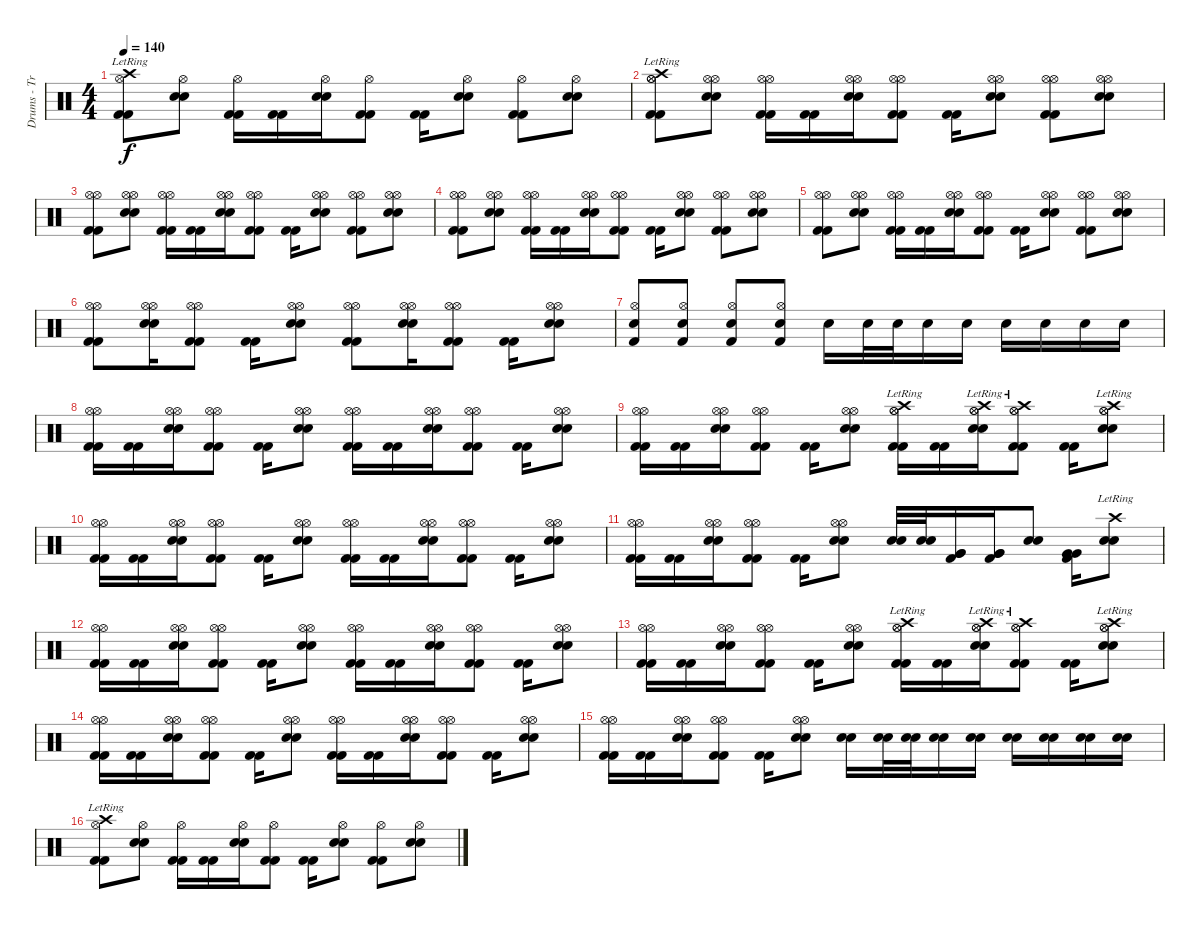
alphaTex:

\track ("Drums - Travis Barker" "Drums - Tr") {instrument percussion}
\staff {score}
\articulation defaults
\ts (4 4)
\tempo 140
\clef neutral
\ks c
("Kick (hit) 2" "Kick (hit) 2" "Hi-Hat (open)" "Crash high (hit)"{lr}).8{dy f} ("Snare (hit) 2" "Snare (hit) 2" "Hi-Hat (open)").8 ("Kick (hit) 2" "Kick (hit) 2" "Hi-Hat (open)").16 ("Kick (hit) 2" "Kick (hit) 2").16 ("Snare (hit) 2" "Snare (hit) 2" "Hi-Hat (open)").16 ("Kick (hit) 2" "Kick (hit) 2" "Hi-Hat (open)").8 ("Kick (hit) 2" "Kick (hit) 2").16 ("Snare (hit) 2" "Snare (hit) 2" "Hi-Hat (open)").8 ("Kick (hit) 2" "Kick (hit) 2" "Hi-Hat (open)").8 ("Snare (hit) 2" "Snare (hit) 2" "Hi-Hat (open)").8 |
("Kick (hit) 2" "Kick (hit) 2" "Hi-Hat (open)" "Hi-Hat (open)" "Crash high (hit)"{lr}).8 ("Snare (hit) 2" "Snare (hit) 2" "Hi-Hat (open)" "Hi-Hat (open)").8 ("Kick (hit) 2" "Kick (hit) 2" "Hi-Hat (open)" "Hi-Hat (open)").16 ("Kick (hit) 2" "Kick (hit) 2").16 ("Snare (hit) 2" "Snare (hit) 2" "Hi-Hat (open)" "Hi-Hat (open)").16 ("Kick (hit) 2" "Kick (hit) 2" "Hi-Hat (open)" "Hi-Hat (open)").8 ("Kick (hit) 2" "Kick (hit) 2").16 ("Snare (hit) 2" "Snare (hit) 2" "Hi-Hat (open)" "Hi-Hat (open)").8 ("Kick (hit) 2" "Kick (hit) 2" "Hi-Hat (open)" "Hi-Hat (open)").8 ("Snare (hit) 2" "Snare (hit) 2" "Hi-Hat (open)" "Hi-Hat (open)").8 |
("Kick (hit) 2" "Kick (hit) 2" "Hi-Hat (open)" "Hi-Hat (open)").8 ("Snare (hit) 2" "Snare (hit) 2" "Hi-Hat (open)" "Hi-Hat (open)").8 ("Kick (hit) 2" "Kick (hit) 2" "Hi-Hat (open)" "Hi-Hat (open)").16 ("Kick (hit) 2" "Kick (hit) 2").16 ("Snare (hit) 2" "Snare (hit) 2" "Hi-Hat (open)" "Hi-Hat (open)").16 ("Kick (hit) 2" "Kick (hit) 2" "Hi-Hat (open)" "Hi-Hat (open)").8 ("Kick (hit) 2" "Kick (hit) 2").16 ("Snare (hit) 2" "Snare (hit) 2" "Hi-Hat (open)" "Hi-Hat (open)").8 ("Kick (hit) 2" "Kick (hit) 2" "Hi-Hat (open)" "Hi-Hat (open)").8 ("Snare (hit) 2" "Snare (hit) 2" "Hi-Hat (open)" "Hi-Hat (open)").8 |
("Kick (hit) 2" "Kick (hit) 2" "Hi-Hat (open)" "Hi-Hat (open)").8 ("Snare (hit) 2" "Snare (hit) 2" "Hi-Hat (open)" "Hi-Hat (open)").8 ("Kick (hit) 2" "Kick (hit) 2" "Hi-Hat (open)" "Hi-Hat (open)").16 ("Kick (hit) 2" "Kick (hit) 2").16 ("Snare (hit) 2" "Snare (hit) 2" "Hi-Hat (open)" "Hi-Hat (open)").16 ("Kick (hit) 2" "Kick (hit) 2" "Hi-Hat (open)" "Hi-Hat (open)").8 ("Kick (hit) 2" "Kick (hit) 2").16 ("Snare (hit) 2" "Snare (hit) 2" "Hi-Hat (open)" "Hi-Hat (open)").8 ("Kick (hit) 2" "Kick (hit) 2" "Hi-Hat (open)" "Hi-Hat (open)").8 ("Snare (hit) 2" "Snare (hit) 2" "Hi-Hat (open)" "Hi-Hat (open)").8 |
("Kick (hit) 2" "Kick (hit) 2" "Hi-Hat (open)" "Hi-Hat (open)").8 ("Snare (hit) 2" "Snare (hit) 2" "Hi-Hat (open)" "Hi-Hat (open)").8 ("Kick (hit) 2" "Kick (hit) 2" "Hi-Hat (open)" "Hi-Hat (open)").16 ("Kick (hit) 2" "Kick (hit) 2").16 ("Snare (hit) 2" "Snare (hit) 2" "Hi-Hat (open)" "Hi-Hat (open)").16 ("Kick (hit) 2" "Kick (hit) 2" "Hi-Hat (open)" "Hi-Hat (open)").8 ("Kick (hit) 2" "Kick (hit) 2").16 ("Snare (hit) 2" "Snare (hit) 2" "Hi-Hat (open)" "Hi-Hat (open)").8 ("Kick (hit) 2" "Kick (hit) 2" "Hi-Hat (open)" "Hi-Hat (open)").8 ("Snare (hit) 2" "Snare (hit) 2" "Hi-Hat (open)" "Hi-Hat (open)").8 |
("Kick (hit) 2" "Kick (hit) 2" "Hi-Hat (open)" "Hi-Hat (open)").8 ("Snare (hit) 2" "Snare (hit) 2" "Hi-Hat (open)" "Hi-Hat (open)").16 ("Kick (hit) 2" "Kick (hit) 2" "Hi-Hat (open)" "Hi-Hat (open)").8 ("Kick (hit) 2" "Kick (hit) 2").16 ("Snare (hit) 2" "Snare (hit) 2" "Hi-Hat (open)" "Hi-Hat (open)").8 ("Kick (hit) 2" "Kick (hit) 2" "Hi-Hat (open)" "Hi-Hat (open)").8 ("Snare (hit) 2" "Snare (hit) 2" "Hi-Hat (open)" "Hi-Hat (open)").16 ("Kick (hit) 2" "Kick (hit) 2" "Hi-Hat (open)" "Hi-Hat (open)").8 ("Kick (hit) 2" "Kick (hit) 2").16 ("Snare (hit) 2" "Snare (hit) 2" "Hi-Hat (open)" "Hi-Hat (open)").8 |
("Hi-Hat (open)" "Snare (hit) 2" "Kick (hit) 2").8 ("Hi-Hat (open)" "Snare (hit) 2" "Kick (hit) 2").8 ("Hi-Hat (open)" "Snare (hit) 2" "Kick (hit) 2").8 ("Hi-Hat (open)" "Snare (hit) 2" "Kick (hit) 2").8 "Snare (hit) 2".16 "Snare (hit) 2".32 "Snare (hit) 2".32 "Snare (hit) 2".16 "Snare (hit) 2".16 "Snare (hit) 2".16 "Snare (hit) 2".16 "Snare (hit) 2".16 "Snare (hit) 2".16 |
("Kick (hit) 2" "Kick (hit) 2" "Hi-Hat (open)" "Hi-Hat (open)").16 ("Kick (hit) 2" "Kick (hit) 2").16 ("Snare (hit) 2" "Snare (hit) 2" "Hi-Hat (open)" "Hi-Hat (open)").16 ("Kick (hit) 2" "Kick (hit) 2" "Hi-Hat (open)" "Hi-Hat (open)").8 ("Kick (hit) 2" "Kick (hit) 2").16 ("Snare (hit) 2" "Snare (hit) 2" "Hi-Hat (open)" "Hi-Hat (open)").8 ("Kick (hit) 2" "Kick (hit) 2" "Hi-Hat (open)" "Hi-Hat (open)").16 ("Kick (hit) 2" "Kick (hit) 2").16 ("Snare (hit) 2" "Snare (hit) 2" "Hi-Hat (open)" "Hi-Hat (open)").16 ("Kick (hit) 2" "Kick (hit) 2" "Hi-Hat (open)" "Hi-Hat (open)").8 ("Kick (hit) 2" "Kick (hit) 2").16 ("Snare (hit) 2" "Snare (hit) 2" "Hi-Hat (open)" "Hi-Hat (open)").8 |
("Kick (hit) 2" "Kick (hit) 2" "Hi-Hat (open)" "Hi-Hat (open)").16 ("Kick (hit) 2" "Kick (hit) 2").16 ("Snare (hit) 2" "Snare (hit) 2" "Hi-Hat (open)" "Hi-Hat (open)").16 ("Kick (hit) 2" "Kick (hit) 2" "Hi-Hat (open)" "Hi-Hat (open)").8 ("Kick (hit) 2" "Kick (hit) 2").16 ("Snare (hit) 2" "Snare (hit) 2" "Hi-Hat (open)" "Hi-Hat (open)").8 ("Kick (hit) 2" "Kick (hit) 2" "Hi-Hat (open)" "Hi-Hat (open)" "Crash high (hit)"{lr}).16 ("Kick (hit) 2" "Kick (hit) 2").16 ("Snare (hit) 2" "Snare (hit) 2" "Hi-Hat (open)" "Hi-Hat (open)" "Crash high (hit)"{lr}).16 ("Kick (hit) 2" "Kick (hit) 2" "Hi-Hat (open)" "Hi-Hat (open)" "Crash high (hit)"{lr}).8 ("Kick (hit) 2" "Kick (hit) 2").16 ("Snare (hit) 2" "Snare (hit) 2" "Hi-Hat (open)" "Hi-Hat (open)" "Crash high (hit)"{lr}).8 |
("Kick (hit) 2" "Kick (hit) 2" "Hi-Hat (open)" "Hi-Hat (open)").16 ("Kick (hit) 2" "Kick (hit) 2").16 ("Snare (hit) 2" "Snare (hit) 2" "Hi-Hat (open)" "Hi-Hat (open)").16 ("Kick (hit) 2" "Kick (hit) 2" "Hi-Hat (open)" "Hi-Hat (open)").8 ("Kick (hit) 2" "Kick (hit) 2").16 ("Snare (hit) 2" "Snare (hit) 2" "Hi-Hat (open)" "Hi-Hat (open)").8 ("Kick (hit) 2" "Kick (hit) 2" "Hi-Hat (open)" "Hi-Hat (open)").16 ("Kick (hit) 2" "Kick (hit) 2").16 ("Snare (hit) 2" "Snare (hit) 2" "Hi-Hat (open)" "Hi-Hat (open)").16 ("Kick (hit) 2" "Kick (hit) 2" "Hi-Hat (open)" "Hi-Hat (open)").8 ("Kick (hit) 2" "Kick (hit) 2").16 ("Snare (hit) 2" "Snare (hit) 2" "Hi-Hat (open)" "Hi-Hat (open)").8 |
("Kick (hit) 2" "Kick (hit) 2" "Hi-Hat (open)" "Hi-Hat (open)").16 ("Kick (hit) 2" "Kick (hit) 2").16 ("Snare (hit) 2" "Snare (hit) 2" "Hi-Hat (open)" "Hi-Hat (open)").16 ("Kick (hit) 2" "Kick (hit) 2" "Hi-Hat (open)" "Hi-Hat (open)").8 ("Kick (hit) 2" "Kick (hit) 2").16 ("Snare (hit) 2" "Snare (hit) 2" "Hi-Hat (open)" "Hi-Hat (open)").8 ("Snare (hit) 2" "Snare (hit) 2").32 ("Snare (hit) 2" "Snare (hit) 2").32 ("Very Low Tom (hit)" "Very Low Tom (hit)" "Kick (hit) 2").16 ("Very Low Tom (hit)" "Very Low Tom (hit)" "Kick (hit) 2").16 ("Snare (hit) 2" "Snare (hit) 2").8 ("Very Low Tom (hit)" "Very Low Tom (hit)" "Kick (hit) 2").16 ("Snare (hit) 2" "Snare (hit) 2" "Crash high (hit)"{lr}).8 |
("Kick (hit) 2" "Kick (hit) 2" "Hi-Hat (open)" "Hi-Hat (open)").16 ("Kick (hit) 2" "Kick (hit) 2").16 ("Snare (hit) 2" "Snare (hit) 2" "Hi-Hat (open)" "Hi-Hat (open)").16 ("Kick (hit) 2" "Kick (hit) 2" "Hi-Hat (open)" "Hi-Hat (open)").8 ("Kick (hit) 2" "Kick (hit) 2").16 ("Snare (hit) 2" "Snare (hit) 2" "Hi-Hat (open)" "Hi-Hat (open)").8 ("Kick (hit) 2" "Kick (hit) 2" "Hi-Hat (open)" "Hi-Hat (open)").16 ("Kick (hit) 2" "Kick (hit) 2").16 ("Snare (hit) 2" "Snare (hit) 2" "Hi-Hat (open)" "Hi-Hat (open)").16 ("Kick (hit) 2" "Kick (hit) 2" "Hi-Hat (open)" "Hi-Hat (open)").8 ("Kick (hit) 2" "Kick (hit) 2").16 ("Snare (hit) 2" "Snare (hit) 2" "Hi-Hat (open)" "Hi-Hat (open)").8 |
("Kick (hit) 2" "Kick (hit) 2" "Hi-Hat (open)" "Hi-Hat (open)").16 ("Kick (hit) 2" "Kick (hit) 2").16 ("Snare (hit) 2" "Snare (hit) 2" "Hi-Hat (open)" "Hi-Hat (open)").16 ("Kick (hit) 2" "Kick (hit) 2" "Hi-Hat (open)" "Hi-Hat (open)").8 ("Kick (hit) 2" "Kick (hit) 2").16 ("Snare (hit) 2" "Snare (hit) 2" "Hi-Hat (open)" "Hi-Hat (open)").8 ("Kick (hit) 2" "Kick (hit) 2" "Hi-Hat (open)" "Hi-Hat (open)" "Crash high (hit)"{lr}).16 ("Kick (hit) 2" "Kick (hit) 2").16 ("Snare (hit) 2" "Snare (hit) 2" "Hi-Hat (open)" "Hi-Hat (open)" "Crash high (hit)"{lr}).16 ("Kick (hit) 2" "Kick (hit) 2" "Hi-Hat (open)" "Hi-Hat (open)" "Crash high (hit)"{lr}).8 ("Kick (hit) 2" "Kick (hit) 2").16 ("Snare (hit) 2" "Snare (hit) 2" "Hi-Hat (open)" "Hi-Hat (open)" "Crash high (hit)"{lr}).8 |
("Kick (hit) 2" "Kick (hit) 2" "Hi-Hat (open)" "Hi-Hat (open)").16 ("Kick (hit) 2" "Kick (hit) 2").16 ("Snare (hit) 2" "Snare (hit) 2" "Hi-Hat (open)" "Hi-Hat (open)").16 ("Kick (hit) 2" "Kick (hit) 2" "Hi-Hat (open)" "Hi-Hat (open)").8 ("Kick (hit) 2" "Kick (hit) 2").16 ("Snare (hit) 2" "Snare (hit) 2" "Hi-Hat (open)" "Hi-Hat (open)").8 ("Kick (hit) 2" "Kick (hit) 2" "Hi-Hat (open)" "Hi-Hat (open)").16 ("Kick (hit) 2" "Kick (hit) 2").16 ("Snare (hit) 2" "Snare (hit) 2" "Hi-Hat (open)" "Hi-Hat (open)").16 ("Kick (hit) 2" "Kick (hit) 2" "Hi-Hat (open)" "Hi-Hat (open)").8 ("Kick (hit) 2" "Kick (hit) 2").16 ("Snare (hit) 2" "Snare (hit) 2" "Hi-Hat (open)" "Hi-Hat (open)").8 |
("Kick (hit) 2" "Kick (hit) 2" "Hi-Hat (open)" "Hi-Hat (open)").16 ("Kick (hit) 2" "Kick (hit) 2").16 ("Snare (hit) 2" "Snare (hit) 2" "Hi-Hat (open)" "Hi-Hat (open)").16 ("Kick (hit) 2" "Kick (hit) 2" "Hi-Hat (open)" "Hi-Hat (open)").8 ("Kick (hit) 2" "Kick (hit) 2").16 ("Snare (hit) 2" "Snare (hit) 2" "Hi-Hat (open)" "Hi-Hat (open)").8 ("Snare (hit) 2" "Snare (hit) 2").16 ("Snare (hit) 2" "Snare (hit) 2").32 ("Snare (hit) 2" "Snare (hit) 2").32 ("Snare (hit) 2" "Snare (hit) 2").16 ("Snare (hit) 2" "Snare (hit) 2").16 ("Snare (hit) 2" "Snare (hit) 2").16 ("Snare (hit) 2" "Snare (hit) 2").16 ("Snare (hit) 2" "Snare (hit) 2").16 ("Snare (hit) 2" "Snare (hit) 2").16 |
("Kick (hit) 2" "Kick (hit) 2" "Hi-Hat (open)" "Crash high (hit)"{lr}).8 ("Snare (hit) 2" "Snare (hit) 2" "Hi-Hat (open)").8 ("Kick (hit) 2" "Kick (hit) 2" "Hi-Hat (open)").16 ("Kick (hit) 2" "Kick (hit) 2").16 ("Snare (hit) 2" "Snare (hit) 2" "Hi-Hat (open)").16 ("Kick (hit) 2" "Kick (hit) 2" "Hi-Hat (open)").8 ("Kick (hit) 2" "Kick (hit) 2").16 ("Snare (hit) 2" "Snare (hit) 2" "Hi-Hat (open)").8 ("Kick (hit) 2" "Kick (hit) 2" "Hi-Hat (open)").8 ("Snare (hit) 2" "Snare (hit) 2" "Hi-Hat (open)").8
